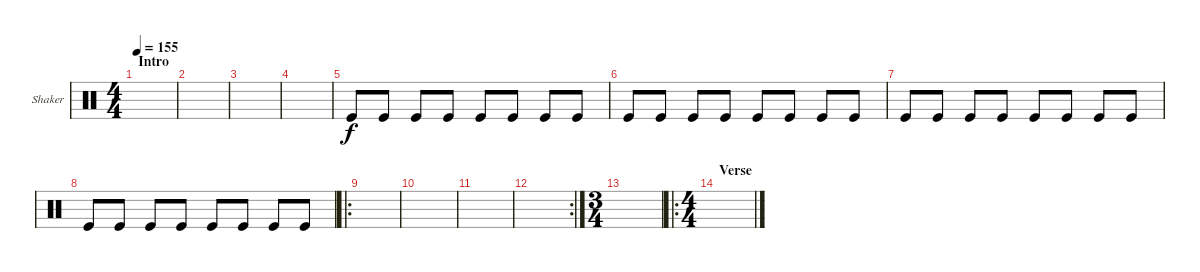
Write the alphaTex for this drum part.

\defaultSystemsLayout 4
\bracketExtendMode groupsimilarinstruments
\firstSystemTrackNameOrientation horizontal
\otherSystemsTrackNameOrientation horizontal
\track ("Shaker" "Shaker") {instrument percussion}
\staff {score}
\articulation defaults
\ts (4 4)
\section ("" "Intro")
\tempo 155
\clef neutral
\scale
0.472222
\ks c
|
\scale
0.263889 |
\scale
0.263889 |
\scale
0.333333 |
\scale
0.333333 "Kick (hit)".8 "Kick (hit)".8 "Kick (hit)".8 "Kick (hit)".8 "Kick (hit)".8 "Kick (hit)".8 "Kick (hit)".8 "Kick (hit)".8 |
\scale
0.333333 "Kick (hit)".8 "Kick (hit)".8 "Kick (hit)".8 "Kick (hit)".8 "Kick (hit)".8 "Kick (hit)".8 "Kick (hit)".8 "Kick (hit)".8 |
\scale
0.311475 "Kick (hit)".8 "Kick (hit)".8 "Kick (hit)".8 "Kick (hit)".8 "Kick (hit)".8 "Kick (hit)".8 "Kick (hit)".8 "Kick (hit)".8 |
\scale
0.311475 "Kick (hit)".8 "Kick (hit)".8 "Kick (hit)".8 "Kick (hit)".8 "Kick (hit)".8 "Kick (hit)".8 "Kick (hit)".8 "Kick (hit)".8 |
\ro
\scale
0.377049 |
\scale
0.322034 |
\scale
0.322034 |
\rc 2
\scale
0.355932 |
\ts (3 4)
\scale
0.373626 |
\ro
\ts (4 4)
\section ("" "Verse")
\scale
0.417582 |
\scale
0.208791 |
\scale
0.322034
